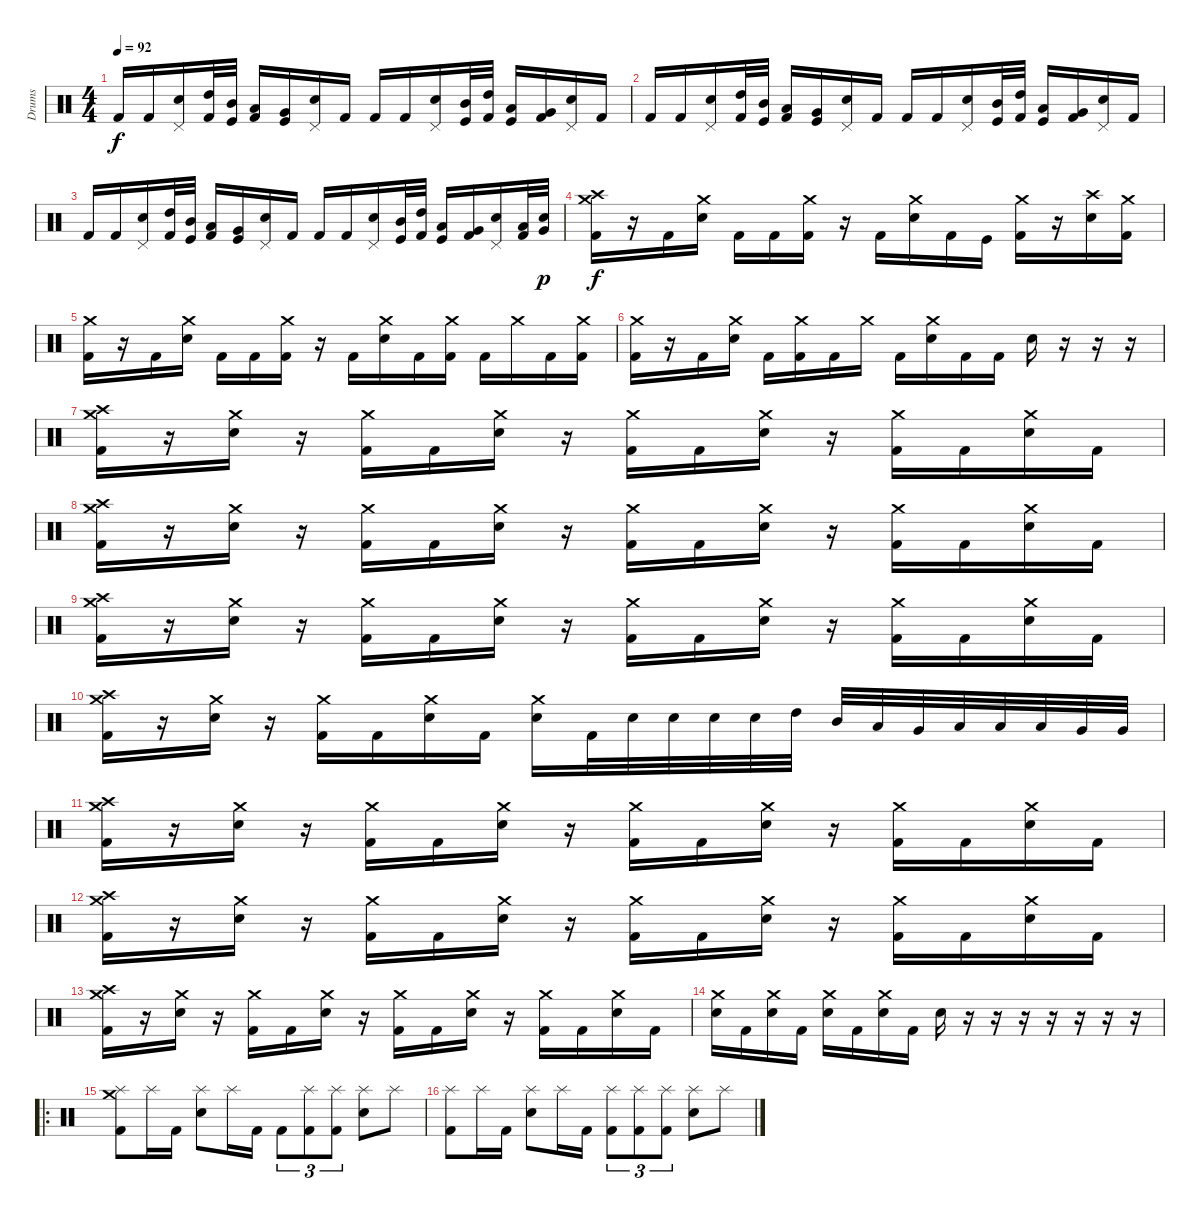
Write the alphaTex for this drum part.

\track ("Drums" "Drums") {instrument percussion}
\staff {score}
\articulation defaults
\ts (4 4)
\tempo 92
\clef neutral
\ks c "Kick (hit) 2".16{dy f} "Kick (hit) 2".16
("Pedal Hi-Hat (hit)" "Electric Snare (hit)").16 ("High Tom (hit)" "Kick (hit) 2").32 ("Mid Tom (hit)" "Kick (hit)").32 ("Low Tom (hit)" "Kick (hit) 2").16 ("Very Low Tom (hit)" "Kick (hit)").16 ("Pedal Hi-Hat (hit)" "Electric Snare (hit)").16 "Kick (hit) 2".16 "Kick (hit) 2".16 "Kick (hit) 2".16 ("Pedal Hi-Hat (hit)" "Electric Snare (hit)").16 ("Mid Tom (hit)" "Kick (hit)").32 ("High Tom (hit)" "Kick (hit) 2").32 ("Low Tom (hit)" "Kick (hit)").16 ("Very Low Tom (hit)" "Kick (hit) 2").16 ("Pedal Hi-Hat (hit)" "Electric Snare (hit)").16 "Kick (hit) 2".16 |
"Kick (hit) 2".16 "Kick (hit) 2".16 ("Pedal Hi-Hat (hit)" "Electric Snare (hit)").16 ("High Tom (hit)" "Kick (hit) 2").32 ("Mid Tom (hit)" "Kick (hit)").32 ("Low Tom (hit)" "Kick (hit) 2").16 ("Very Low Tom (hit)" "Kick (hit)").16 ("Pedal Hi-Hat (hit)" "Electric Snare (hit)").16 "Kick (hit) 2".16 "Kick (hit) 2".16 "Kick (hit) 2".16 ("Pedal Hi-Hat (hit)" "Electric Snare (hit)").16 ("Mid Tom (hit)" "Kick (hit)").32 ("High Tom (hit)" "Kick (hit) 2").32 ("Low Tom (hit)" "Kick (hit)").16 ("Very Low Tom (hit)" "Kick (hit) 2").16 ("Pedal Hi-Hat (hit)" "Electric Snare (hit)").16 "Kick (hit) 2".16 |
"Kick (hit) 2".16 "Kick (hit) 2".16 ("Pedal Hi-Hat (hit)" "Electric Snare (hit)").16 ("High Tom (hit)" "Kick (hit) 2").32 ("Mid Tom (hit)" "Kick (hit)").32 ("Low Tom (hit)" "Kick (hit) 2").16 ("Very Low Tom (hit)" "Kick (hit)").16 ("Pedal Hi-Hat (hit)" "Electric Snare (hit)").16 "Kick (hit) 2".16 "Kick (hit) 2".16 "Kick (hit) 2".16 ("Pedal Hi-Hat (hit)" "Electric Snare (hit)").16 ("Mid Tom (hit)" "Kick (hit)").32 ("High Tom (hit)" "Kick (hit) 2").32 ("Low Tom (hit)" "Kick (hit)").16 ("Very Low Tom (hit)" "Kick (hit) 2").16 ("Pedal Hi-Hat (hit)" "Electric Snare (hit)").16 ("Kick (hit) 2" "Low Tom (hit)").32 ("Electric Snare (hit)" "Very Low Tom (hit)").32{dy p} |
("Crash high (hit)" "Crash medium (hit)" "Kick (hit) 2").16{dy f} r.16 "Kick (hit) 2".16 ("Crash medium (hit)" "Electric Snare (hit)").16 "Kick (hit) 2".16 "Kick (hit) 2".16 ("Crash medium (hit)" "Kick (hit) 2").16 r.16 "Kick (hit) 2".16 ("Crash medium (hit)" "Electric Snare (hit)").16 "Kick (hit) 2".16 "Kick (hit)".16 ("Crash medium (hit)" "Kick (hit) 2").16 r.16 ("Crash high (hit)" "Electric Snare (hit)").16 ("Crash medium (hit)" "Kick (hit) 2").16 |
("Crash medium (hit)" "Kick (hit) 2").16 r.16 "Kick (hit) 2".16 ("Crash medium (hit)" "Electric Snare (hit)").16 "Kick (hit) 2".16 "Kick (hit) 2".16 ("Crash medium (hit)" "Kick (hit) 2").16 r.16 "Kick (hit) 2".16 ("Crash medium (hit)" "Electric Snare (hit)").16 "Kick (hit) 2".16 ("Crash medium (hit)" "Kick (hit) 2").16 "Kick (hit) 2".16 "Crash medium (hit)".16 "Kick (hit) 2".16 ("Crash medium (hit)" "Kick (hit) 2").16 |
("Crash medium (hit)" "Kick (hit) 2").16 r.16 "Kick (hit) 2".16 ("Crash medium (hit)" "Electric Snare (hit)").16 "Kick (hit) 2".16 ("Crash medium (hit)" "Kick (hit) 2").16 "Kick (hit) 2".16 "Crash medium (hit)".16 "Kick (hit) 2".16 ("Crash medium (hit)" "Electric Snare (hit)").16 "Kick (hit) 2".16 "Kick (hit) 2".16 "Electric Snare (hit)".16 r.16 r.16 r.16 |
("Crash high (hit)" "Crash medium (hit)" "Kick (hit) 2").16 r.16 ("Crash medium (hit)" "Electric Snare (hit)").16 r.16 ("Crash medium (hit)" "Kick (hit) 2").16 "Kick (hit) 2".16 ("Crash medium (hit)" "Electric Snare (hit)").16 r.16 ("Crash medium (hit)" "Kick (hit) 2").16 "Kick (hit) 2".16 ("Crash medium (hit)" "Electric Snare (hit)").16 r.16 ("Crash medium (hit)" "Kick (hit) 2").16 "Kick (hit) 2".16 ("Crash medium (hit)" "Electric Snare (hit)").16 "Kick (hit) 2".16 |
("Crash high (hit)" "Crash medium (hit)" "Kick (hit) 2").16 r.16 ("Crash medium (hit)" "Electric Snare (hit)").16 r.16 ("Crash medium (hit)" "Kick (hit) 2").16 "Kick (hit) 2".16 ("Crash medium (hit)" "Electric Snare (hit)").16 r.16 ("Crash medium (hit)" "Kick (hit) 2").16 "Kick (hit) 2".16 ("Crash medium (hit)" "Electric Snare (hit)").16 r.16 ("Crash medium (hit)" "Kick (hit) 2").16 "Kick (hit) 2".16 ("Crash medium (hit)" "Electric Snare (hit)").16 "Kick (hit) 2".16 |
("Crash high (hit)" "Crash medium (hit)" "Kick (hit) 2").16 r.16 ("Crash medium (hit)" "Electric Snare (hit)").16 r.16 ("Crash medium (hit)" "Kick (hit) 2").16 "Kick (hit) 2".16 ("Crash medium (hit)" "Electric Snare (hit)").16 r.16 ("Crash medium (hit)" "Kick (hit) 2").16 "Kick (hit) 2".16 ("Crash medium (hit)" "Electric Snare (hit)").16 r.16 ("Crash medium (hit)" "Kick (hit) 2").16 "Kick (hit) 2".16 ("Crash medium (hit)" "Electric Snare (hit)").16 "Kick (hit) 2".16 |
("Crash high (hit)" "Crash medium (hit)" "Kick (hit) 2").16 r.16 ("Crash medium (hit)" "Electric Snare (hit)").16 r.16 ("Crash medium (hit)" "Kick (hit) 2").16 "Kick (hit) 2".16 ("Crash medium (hit)" "Electric Snare (hit)").16 "Kick (hit) 2".16 ("Crash medium (hit)" "Electric Snare (hit)").16 "Kick (hit) 2".32 "Electric Snare (hit)".32 "Electric Snare (hit)".32 "Electric Snare (hit)".32 "Electric Snare (hit)".32 "High Tom (hit)".32 "Mid Tom (hit)".32 "Low Tom (hit)".32 "Very Low Tom (hit)".32 "Low Floor Tom (hit)".32 "Low Floor Tom (hit)".32 "Low Floor Tom (hit)".32 "Very Low Tom (hit)".32 "Very Low Tom (hit)".32 |
("Crash high (hit)" "Crash medium (hit)" "Kick (hit) 2").16 r.16 ("Crash medium (hit)" "Electric Snare (hit)").16 r.16 ("Crash medium (hit)" "Kick (hit) 2").16 "Kick (hit) 2".16 ("Crash medium (hit)" "Electric Snare (hit)").16 r.16 ("Crash medium (hit)" "Kick (hit) 2").16 "Kick (hit) 2".16 ("Crash medium (hit)" "Electric Snare (hit)").16 r.16 ("Crash medium (hit)" "Kick (hit) 2").16 "Kick (hit) 2".16 ("Crash medium (hit)" "Electric Snare (hit)").16 "Kick (hit) 2".16 |
("Crash high (hit)" "Crash medium (hit)" "Kick (hit) 2").16 r.16 ("Crash medium (hit)" "Electric Snare (hit)").16 r.16 ("Crash medium (hit)" "Kick (hit) 2").16 "Kick (hit) 2".16 ("Crash medium (hit)" "Electric Snare (hit)").16 r.16 ("Crash medium (hit)" "Kick (hit) 2").16 "Kick (hit) 2".16 ("Crash medium (hit)" "Electric Snare (hit)").16 r.16 ("Crash medium (hit)" "Kick (hit) 2").16 "Kick (hit) 2".16 ("Crash medium (hit)" "Electric Snare (hit)").16 "Kick (hit) 2".16 |
("Crash high (hit)" "Crash medium (hit)" "Kick (hit) 2").16 r.16 ("Crash medium (hit)" "Electric Snare (hit)").16 r.16 ("Crash medium (hit)" "Kick (hit) 2").16 "Kick (hit) 2".16 ("Crash medium (hit)" "Electric Snare (hit)").16 r.16 ("Crash medium (hit)" "Kick (hit) 2").16 "Kick (hit) 2".16 ("Crash medium (hit)" "Electric Snare (hit)").16 r.16 ("Crash medium (hit)" "Kick (hit) 2").16 "Kick (hit) 2".16 ("Crash medium (hit)" "Electric Snare (hit)").16 "Kick (hit) 2".16 |
("Crash medium (hit)" "Electric Snare (hit)").16 "Kick (hit) 2".16 ("Crash medium (hit)" "Electric Snare (hit)").16 "Kick (hit) 2".16 ("Crash medium (hit)" "Electric Snare (hit)").16 "Kick (hit) 2".16 ("Crash medium (hit)" "Electric Snare (hit)").16 "Kick (hit) 2".16 "Electric Snare (hit)".16 r.16 r.16 r.16 r.16 r.16 r.16 r.16 |
\ro
("Splash (hit)" "Crash medium (hit)" "Kick (hit) 2").8 "Splash (hit)".16 "Kick (hit) 2".16 ("Splash (hit)" "Electric Snare (hit)").8 "Splash (hit)".16 "Kick (hit) 2".16 "Kick (hit) 2".8{tu (3 2)} ("Splash (hit)" "Kick (hit) 2").8{tu (3 2)} ("Splash (hit)" "Kick (hit) 2").8{tu (3 2)} ("Splash (hit)" "Electric Snare (hit)").8 "Splash (hit)".8 |
("Splash (hit)" "Kick (hit) 2").8 "Splash (hit)".16 "Kick (hit) 2".16 ("Splash (hit)" "Electric Snare (hit)").8 "Splash (hit)".16 "Kick (hit) 2".16 ("Splash (hit)" "Kick (hit) 2").8{tu (3 2)} ("Splash (hit)" "Kick (hit) 2").8{tu (3 2)} ("Splash (hit)" "Kick (hit) 2").8{tu (3 2)} ("Splash (hit)" "Electric Snare (hit)").8 "Splash (hit)".8
